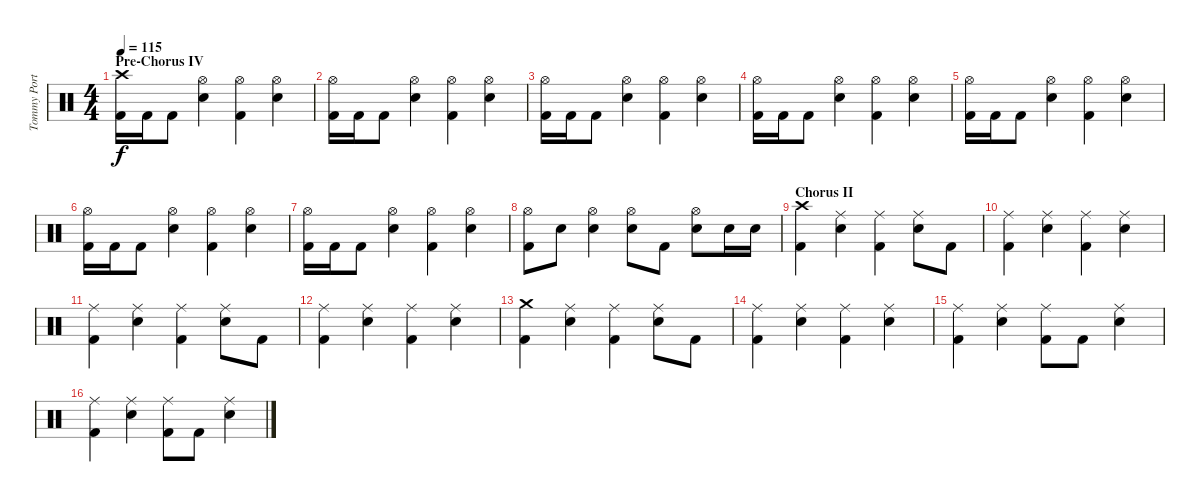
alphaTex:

\track ("Tommy Portino - Drums" "Tommy Port") {instrument percussion}
\staff {score}
\articulation defaults
\ts (4 4)
\section ("" "Pre-Chorus IV")
\tempo 115
\clef neutral
\ks c
("Crash high (hit)" "Kick (hit) 2").16{dy f} "Kick (hit) 2".16 "Kick (hit) 2".8 ("Hi-Hat (open)" "Electric Snare (hit)").4 ("Hi-Hat (open)" "Kick (hit) 2").4 ("Hi-Hat (open)" "Electric Snare (hit)").4 |
("Hi-Hat (open)" "Kick (hit) 2").16 "Kick (hit) 2".16 "Kick (hit) 2".8 ("Hi-Hat (open)" "Electric Snare (hit)").4 ("Hi-Hat (open)" "Kick (hit) 2").4 ("Hi-Hat (open)" "Electric Snare (hit)").4 |
("Hi-Hat (open)" "Kick (hit) 2").16 "Kick (hit) 2".16 "Kick (hit) 2".8 ("Hi-Hat (open)" "Electric Snare (hit)").4 ("Hi-Hat (open)" "Kick (hit) 2").4 ("Hi-Hat (open)" "Electric Snare (hit)").4 |
("Hi-Hat (open)" "Kick (hit) 2").16 "Kick (hit) 2".16 "Kick (hit) 2".8 ("Hi-Hat (open)" "Electric Snare (hit)").4 ("Hi-Hat (open)" "Kick (hit) 2").4 ("Hi-Hat (open)" "Electric Snare (hit)").4 |
("Hi-Hat (open)" "Kick (hit) 2").16 "Kick (hit) 2".16 "Kick (hit) 2".8 ("Hi-Hat (open)" "Electric Snare (hit)").4 ("Hi-Hat (open)" "Kick (hit) 2").4 ("Hi-Hat (open)" "Electric Snare (hit)").4 |
("Hi-Hat (open)" "Kick (hit) 2").16 "Kick (hit) 2".16 "Kick (hit) 2".8 ("Hi-Hat (open)" "Electric Snare (hit)").4 ("Hi-Hat (open)" "Kick (hit) 2").4 ("Hi-Hat (open)" "Electric Snare (hit)").4 |
("Hi-Hat (open)" "Kick (hit) 2").16 "Kick (hit) 2".16 "Kick (hit) 2".8 ("Hi-Hat (open)" "Electric Snare (hit)").4 ("Hi-Hat (open)" "Kick (hit) 2").4 ("Hi-Hat (open)" "Electric Snare (hit)").4 |
("Hi-Hat (open)" "Kick (hit) 2").8 "Electric Snare (hit)".8 ("Hi-Hat (open)" "Electric Snare (hit)").4 ("Hi-Hat (open)" "Electric Snare (hit)").8 "Kick (hit) 2".8 ("Hi-Hat (open)" "Electric Snare (hit)").8 "Electric Snare (hit)".16 "Electric Snare (hit)".16 |
\section ("" "Chorus II")
("Crash high (hit)" "Kick (hit) 2").4 ("Ride (middle)" "Electric Snare (hit)").4 ("Ride (middle)" "Kick (hit) 2").4 ("Ride (middle)" "Electric Snare (hit)").8 "Kick (hit) 2".8 |
("Ride (middle)" "Kick (hit) 2").4 ("Ride (middle)" "Electric Snare (hit)").4 ("Ride (middle)" "Kick (hit) 2").4 ("Ride (middle)" "Electric Snare (hit)").4 |
("Ride (middle)" "Kick (hit) 2").4 ("Ride (middle)" "Electric Snare (hit)").4 ("Ride (middle)" "Kick (hit) 2").4 ("Ride (middle)" "Electric Snare (hit)").8 "Kick (hit) 2".8 |
("Ride (middle)" "Kick (hit) 2").4 ("Ride (middle)" "Electric Snare (hit)").4 ("Ride (middle)" "Kick (hit) 2").4 ("Ride (middle)" "Electric Snare (hit)").4 |
("Crash medium (hit)" "Kick (hit) 2").4 ("Ride (middle)" "Electric Snare (hit)").4 ("Ride (middle)" "Kick (hit) 2").4 ("Ride (middle)" "Electric Snare (hit)").8 "Kick (hit) 2".8 |
("Ride (middle)" "Kick (hit) 2").4 ("Ride (middle)" "Electric Snare (hit)").4 ("Ride (middle)" "Kick (hit) 2").4 ("Ride (middle)" "Electric Snare (hit)").4 |
("Ride (middle)" "Kick (hit) 2").4 ("Ride (middle)" "Electric Snare (hit)").4 ("Ride (middle)" "Kick (hit) 2").8 "Kick (hit) 2".8 ("Ride (middle)" "Electric Snare (hit)").4 |
("Ride (middle)" "Kick (hit) 2").4 ("Ride (middle)" "Electric Snare (hit)").4 ("Ride (middle)" "Kick (hit) 2").8 "Kick (hit) 2".8 ("Ride (middle)" "Electric Snare (hit)").4
